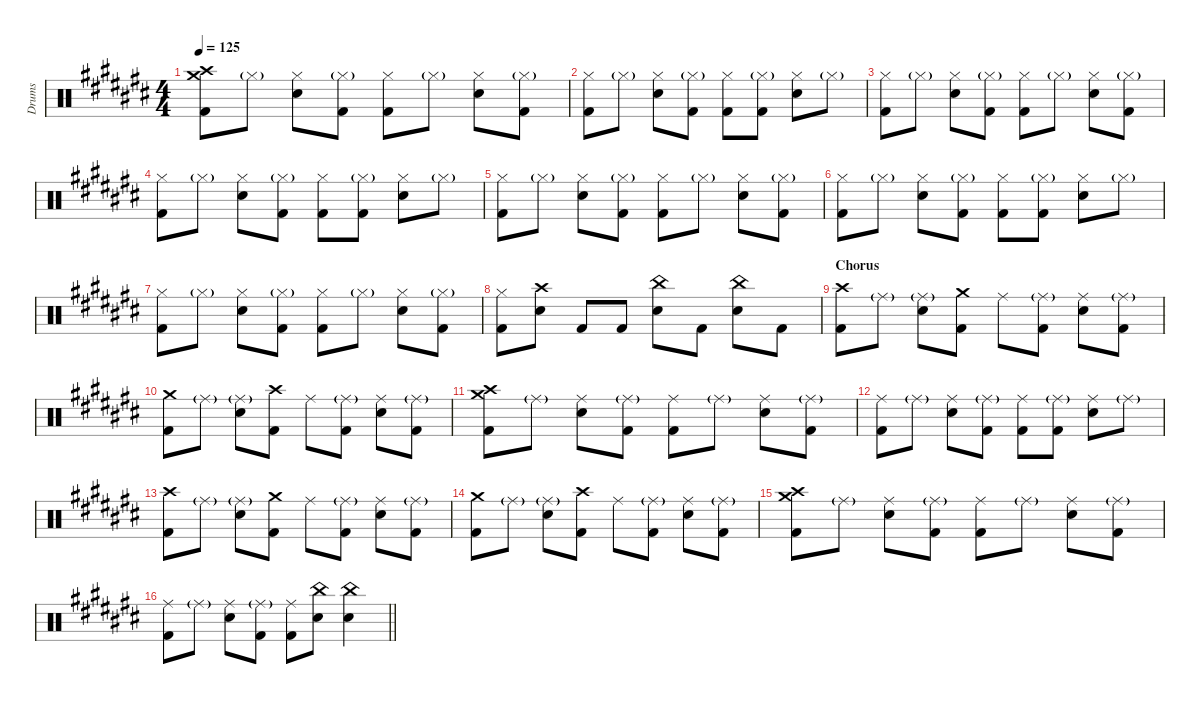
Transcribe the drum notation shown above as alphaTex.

\hideDynamics
\bracketExtendMode nobrackets
\otherSystemsTrackNameOrientation horizontal
\track ("Drumkit" "Drums") {defaultSystemsLayout 4 instrument percussion}
\staff {score}
\articulation defaults
\ts (4 4)
\tempo 125
\clef neutral
\ks c#
("Crash medium (hit)"{acc forcenatural} "Kick (hit) 2"{acc forcenatural} "Crash high (hit)"{acc forcenatural}).8{dy ff beam Down} "Hi-Hat (closed)"{g acc forcenatural}.8{beam Down} ("Hi-Hat (closed)"{acc forcenatural} "Snare (hit) 2"{acc forcenatural}).8{beam Down} ("Hi-Hat (closed)"{g acc forcenatural} "Kick (hit) 2"{acc forcenatural}).8{beam Down} ("Hi-Hat (closed)"{acc forcenatural} "Kick (hit) 2"{acc forcenatural}).8{beam Down} "Hi-Hat (closed)"{g acc forcenatural}.8{beam Down} ("Hi-Hat (closed)"{acc forcenatural} "Snare (hit) 2"{acc forcenatural}).8{beam Down} ("Hi-Hat (closed)"{g acc forcenatural} "Kick (hit) 2"{acc forcenatural}).8{beam Down} |
("Hi-Hat (closed)"{acc forcenatural} "Kick (hit) 2"{acc forcenatural}).8{beam Down} "Hi-Hat (closed)"{g acc forcenatural}.8{beam Down} ("Hi-Hat (closed)"{acc forcenatural} "Snare (hit) 2"{acc forcenatural}).8{beam Down} ("Hi-Hat (closed)"{g acc forcenatural} "Kick (hit) 2"{acc forcenatural}).8{beam Down} ("Hi-Hat (closed)"{acc forcenatural} "Kick (hit) 2"{acc forcenatural}).8{beam Down} ("Hi-Hat (closed)"{g acc forcenatural} "Kick (hit) 2"{acc forcenatural}).8{beam Down} ("Hi-Hat (closed)"{acc forcenatural} "Snare (hit) 2"{acc forcenatural}).8{beam Down} "Hi-Hat (closed)"{g acc forcenatural}.8{beam Down} |
("Hi-Hat (closed)"{acc forcenatural} "Kick (hit) 2"{acc forcenatural}).8{beam Down} "Hi-Hat (closed)"{g acc forcenatural}.8{beam Down} ("Hi-Hat (closed)"{acc forcenatural} "Snare (hit) 2"{acc forcenatural}).8{beam Down} ("Hi-Hat (closed)"{g acc forcenatural} "Kick (hit) 2"{acc forcenatural}).8{beam Down} ("Hi-Hat (closed)"{acc forcenatural} "Kick (hit) 2"{acc forcenatural}).8{beam Down} "Hi-Hat (closed)"{g acc forcenatural}.8{beam Down} ("Hi-Hat (closed)"{acc forcenatural} "Snare (hit) 2"{acc forcenatural}).8{beam Down} ("Hi-Hat (closed)"{g acc forcenatural} "Kick (hit) 2"{acc forcenatural}).8{beam Down} |
("Hi-Hat (closed)"{acc forcenatural} "Kick (hit) 2"{acc forcenatural}).8{beam Down} "Hi-Hat (closed)"{g acc forcenatural}.8{beam Down} ("Hi-Hat (closed)"{acc forcenatural} "Snare (hit) 2"{acc forcenatural}).8{beam Down} ("Hi-Hat (closed)"{g acc forcenatural} "Kick (hit) 2"{acc forcenatural}).8{beam Down} ("Hi-Hat (closed)"{acc forcenatural} "Kick (hit) 2"{acc forcenatural}).8{beam Down} ("Hi-Hat (closed)"{g acc forcenatural} "Kick (hit) 2"{acc forcenatural}).8{beam Down} ("Hi-Hat (closed)"{acc forcenatural} "Snare (hit) 2"{acc forcenatural}).8{beam Down} "Hi-Hat (closed)"{g acc forcenatural}.8{beam Down} |
("Hi-Hat (closed)"{acc forcenatural} "Kick (hit) 2"{acc forcenatural}).8{beam Down} "Hi-Hat (closed)"{g acc forcenatural}.8{beam Down} ("Hi-Hat (closed)"{acc forcenatural} "Snare (hit) 2"{acc forcenatural}).8{beam Down} ("Hi-Hat (closed)"{g acc forcenatural} "Kick (hit) 2"{acc forcenatural}).8{beam Down} ("Hi-Hat (closed)"{acc forcenatural} "Kick (hit) 2"{acc forcenatural}).8{beam Down} "Hi-Hat (closed)"{g acc forcenatural}.8{beam Down} ("Hi-Hat (closed)"{acc forcenatural} "Snare (hit) 2"{acc forcenatural}).8{beam Down} ("Hi-Hat (closed)"{g acc forcenatural} "Kick (hit) 2"{acc forcenatural}).8{beam Down} |
("Hi-Hat (closed)"{acc forcenatural} "Kick (hit) 2"{acc forcenatural}).8{beam Down} "Hi-Hat (closed)"{g acc forcenatural}.8{beam Down} ("Hi-Hat (closed)"{acc forcenatural} "Snare (hit) 2"{acc forcenatural}).8{beam Down} ("Hi-Hat (closed)"{g acc forcenatural} "Kick (hit) 2"{acc forcenatural}).8{beam Down} ("Hi-Hat (closed)"{acc forcenatural} "Kick (hit) 2"{acc forcenatural}).8{beam Down} ("Hi-Hat (closed)"{g acc forcenatural} "Kick (hit) 2"{acc forcenatural}).8{beam Down} ("Hi-Hat (closed)"{acc forcenatural} "Snare (hit) 2"{acc forcenatural}).8{beam Down} "Hi-Hat (closed)"{g acc forcenatural}.8{beam Down} |
("Hi-Hat (closed)"{acc forcenatural} "Kick (hit) 2"{acc forcenatural}).8{beam Down} "Hi-Hat (closed)"{g acc forcenatural}.8{beam Down} ("Hi-Hat (closed)"{acc forcenatural} "Snare (hit) 2"{acc forcenatural}).8{beam Down} ("Hi-Hat (closed)"{g acc forcenatural} "Kick (hit) 2"{acc forcenatural}).8{beam Down} ("Hi-Hat (closed)"{acc forcenatural} "Kick (hit) 2"{acc forcenatural}).8{beam Down} "Hi-Hat (closed)"{g acc forcenatural}.8{beam Down} ("Hi-Hat (closed)"{acc forcenatural} "Snare (hit) 2"{acc forcenatural}).8{beam Down} ("Hi-Hat (closed)"{g acc forcenatural} "Kick (hit) 2"{acc forcenatural}).8{beam Down} |
("Hi-Hat (closed)"{acc forcenatural} "Kick (hit) 2"{acc forcenatural}).8{beam Down} ("Snare (hit) 2"{acc forcenatural} "Crash high (hit)"{acc forcenatural}).8{beam Down} "Kick (hit) 2"{acc forcenatural}.8{beam Up} "Kick (hit) 2"{acc forcenatural}.8{beam Up} ("Snare (hit) 2"{acc forcenatural} "China (hit)"{acc forcenatural}).8{beam Down} "Kick (hit) 2"{acc forcenatural}.8{beam Down} ("Snare (hit) 2"{acc forcenatural} "China (hit)"{acc forcenatural}).8{beam Down} "Kick (hit) 2"{acc forcenatural}.8{beam Down} |
\section ("" "Chorus")
("Kick (hit) 2"{acc forcenatural} "Crash high (hit)"{acc forcenatural}).8{beam Down} "Ride (middle)"{g acc forcenatural}.8{beam Down} ("Ride (middle)"{g acc forcenatural} "Snare (hit) 2"{acc forcenatural}).8{beam Down} ("Kick (hit) 2"{acc forcenatural} "Crash medium (hit)"{acc forcenatural}).8{beam Down} "Ride (middle)"{acc forcenatural}.8{beam Down} ("Ride (middle)"{g acc forcenatural} "Kick (hit) 2"{acc forcenatural}).8{beam Down} ("Ride (middle)"{acc forcenatural} "Snare (hit) 2"{acc forcenatural}).8{beam Down} ("Ride (middle)"{g acc forcenatural} "Kick (hit) 2"{acc forcenatural}).8{beam Down} |
("Crash medium (hit)"{acc forcenatural} "Kick (hit) 2"{acc forcenatural}).8{beam Down} "Ride (middle)"{g acc forcenatural}.8{beam Down} ("Ride (middle)"{g acc forcenatural} "Snare (hit) 2"{acc forcenatural}).8{beam Down} ("Crash high (hit)"{acc forcenatural} "Kick (hit) 2"{acc forcenatural}).8{beam Down} "Ride (middle)"{acc forcenatural}.8{beam Down} ("Ride (middle)"{g acc forcenatural} "Kick (hit) 2"{acc forcenatural}).8{beam Down} ("Ride (middle)"{acc forcenatural} "Snare (hit) 2"{acc forcenatural}).8{beam Down} ("Ride (middle)"{g acc forcenatural} "Kick (hit) 2"{acc forcenatural}).8{beam Down} |
("Crash medium (hit)"{acc forcenatural} "Kick (hit) 2"{acc forcenatural} "Crash high (hit)"{acc forcenatural}).8{beam Down} "Ride (middle)"{g acc forcenatural}.8{beam Down} ("Ride (middle)"{acc forcenatural} "Snare (hit) 2"{acc forcenatural}).8{beam Down} ("Ride (middle)"{g acc forcenatural} "Kick (hit) 2"{acc forcenatural}).8{beam Down} ("Ride (middle)"{acc forcenatural} "Kick (hit) 2"{acc forcenatural}).8{beam Down} "Ride (middle)"{g acc forcenatural}.8{beam Down} ("Ride (middle)"{acc forcenatural} "Snare (hit) 2"{acc forcenatural}).8{beam Down} ("Ride (middle)"{g acc forcenatural} "Kick (hit) 2"{acc forcenatural}).8{beam Down} |
("Ride (middle)"{acc forcenatural} "Kick (hit) 2"{acc forcenatural}).8{beam Down} "Ride (middle)"{g acc forcenatural}.8{beam Down} ("Ride (middle)"{acc forcenatural} "Snare (hit) 2"{acc forcenatural}).8{beam Down} ("Ride (middle)"{g acc forcenatural} "Kick (hit) 2"{acc forcenatural}).8{beam Down} ("Ride (middle)"{acc forcenatural} "Kick (hit) 2"{acc forcenatural}).8{beam Down} ("Ride (middle)"{g acc forcenatural} "Kick (hit) 2"{acc forcenatural}).8{beam Down} ("Ride (middle)"{acc forcenatural} "Snare (hit) 2"{acc forcenatural}).8{beam Down} "Ride (middle)"{g acc forcenatural}.8{beam Down} |
("Kick (hit) 2"{acc forcenatural} "Crash high (hit)"{acc forcenatural}).8{beam Down} "Ride (middle)"{g acc forcenatural}.8{beam Down} ("Ride (middle)"{g acc forcenatural} "Snare (hit) 2"{acc forcenatural}).8{beam Down} ("Kick (hit) 2"{acc forcenatural} "Crash medium (hit)"{acc forcenatural}).8{beam Down} "Ride (middle)"{acc forcenatural}.8{beam Down} ("Ride (middle)"{g acc forcenatural} "Kick (hit) 2"{acc forcenatural}).8{beam Down} ("Ride (middle)"{acc forcenatural} "Snare (hit) 2"{acc forcenatural}).8{beam Down} ("Ride (middle)"{g acc forcenatural} "Kick (hit) 2"{acc forcenatural}).8{beam Down} |
("Crash medium (hit)"{acc forcenatural} "Kick (hit) 2"{acc forcenatural}).8{beam Down} "Ride (middle)"{g acc forcenatural}.8{beam Down} ("Ride (middle)"{g acc forcenatural} "Snare (hit) 2"{acc forcenatural}).8{beam Down} ("Crash high (hit)"{acc forcenatural} "Kick (hit) 2"{acc forcenatural}).8{beam Down} "Ride (middle)"{acc forcenatural}.8{beam Down} ("Ride (middle)"{g acc forcenatural} "Kick (hit) 2"{acc forcenatural}).8{beam Down} ("Ride (middle)"{acc forcenatural} "Snare (hit) 2"{acc forcenatural}).8{beam Down} ("Ride (middle)"{g acc forcenatural} "Kick (hit) 2"{acc forcenatural}).8{beam Down} |
("Crash medium (hit)"{acc forcenatural} "Kick (hit) 2"{acc forcenatural} "Crash high (hit)"{acc forcenatural}).8{beam Down} "Ride (middle)"{g acc forcenatural}.8{beam Down} ("Ride (middle)"{acc forcenatural} "Snare (hit) 2"{acc forcenatural}).8{beam Down} ("Ride (middle)"{g acc forcenatural} "Kick (hit) 2"{acc forcenatural}).8{beam Down} ("Ride (middle)"{acc forcenatural} "Kick (hit) 2"{acc forcenatural}).8{beam Down} "Ride (middle)"{g acc forcenatural}.8{beam Down} ("Ride (middle)"{acc forcenatural} "Snare (hit) 2"{acc forcenatural}).8{beam Down} ("Ride (middle)"{g acc forcenatural} "Kick (hit) 2"{acc forcenatural}).8{beam Down} |
\barLineRight lightlight
("Ride (middle)"{acc forcenatural} "Kick (hit) 2"{acc forcenatural}).8{beam Down} "Ride (middle)"{g acc forcenatural}.8{beam Down} ("Ride (middle)"{acc forcenatural} "Snare (hit) 2"{acc forcenatural}).8{beam Down} ("Ride (middle)"{g acc forcenatural} "Kick (hit) 2"{acc forcenatural}).8{beam Down} ("Ride (middle)"{acc forcenatural} "Kick (hit) 2"{acc forcenatural}).8{beam Down} ("China (hit)"{acc forcenatural} "Snare (hit) 2"{acc forcenatural}).8{beam Down} ("China (hit)"{acc forcenatural} "Snare (hit) 2"{acc forcenatural}).4{beam Down}
